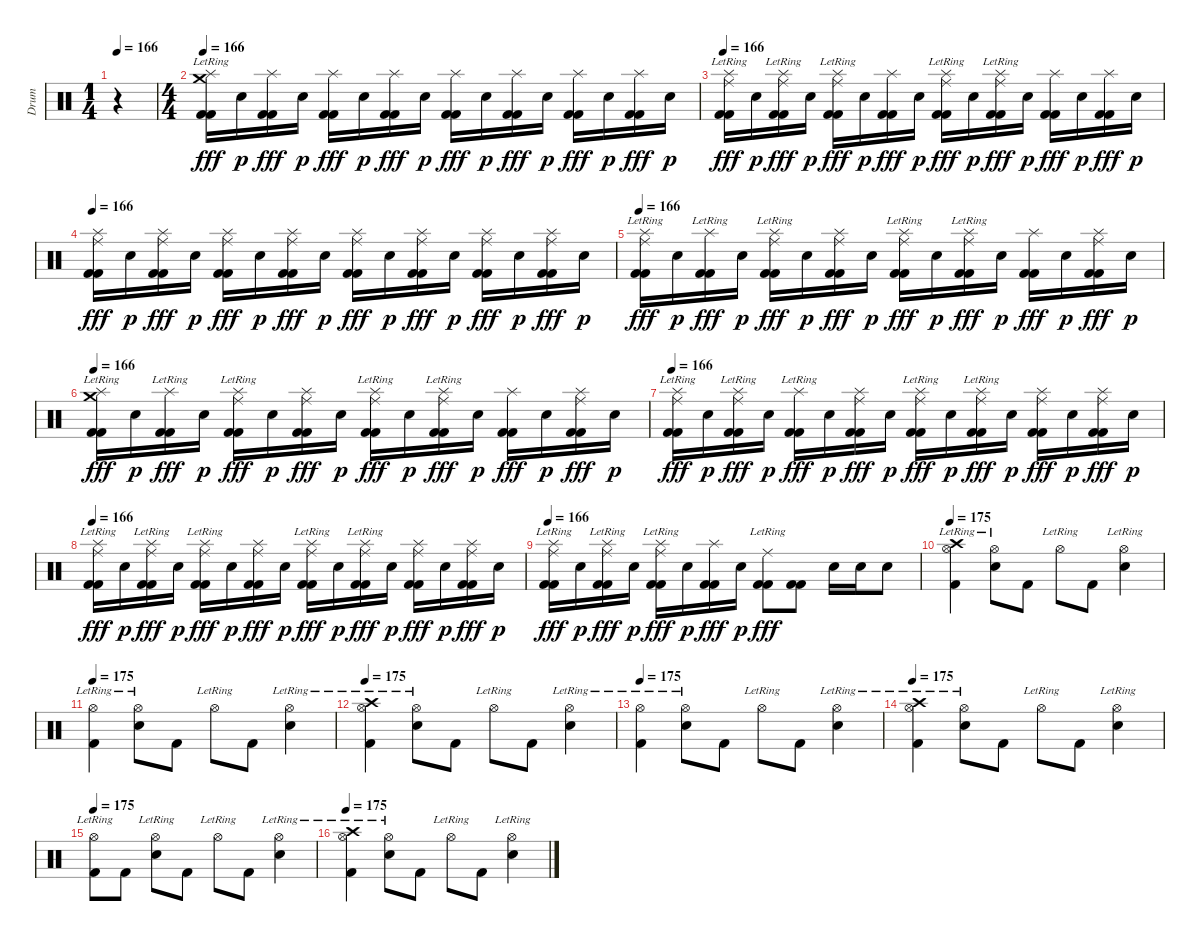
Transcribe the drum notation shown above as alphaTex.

\track ("Drum" "Drum") {instrument percussion}
\staff {score}
\articulation defaults
\ts (1 4)
\tempo 166
\clef neutral
\ks c
r.4{dy fff} |
\ts (4 4)
\tempo 166
("Crash medium (hit)"{lr} "Splash (hit)" "Kick (hit) 2" "Kick (hit) 2").16 "Electric Snare (hit)".16{dy p} ("Splash (hit)" "Kick (hit) 2" "Kick (hit) 2").16{dy fff} "Electric Snare (hit)".16{dy p} ("Splash (hit)" "Kick (hit) 2" "Kick (hit) 2").16{dy fff} "Electric Snare (hit)".16{dy p} ("Splash (hit)" "Kick (hit) 2" "Kick (hit) 2").16{dy fff} "Electric Snare (hit)".16{dy p} ("Splash (hit)" "Kick (hit) 2" "Kick (hit) 2").16{dy fff} "Electric Snare (hit)".16{dy p} ("Splash (hit)" "Kick (hit) 2" "Kick (hit) 2").16{dy fff} "Electric Snare (hit)".16{dy p} ("Splash (hit)" "Kick (hit) 2" "Kick (hit) 2").16{dy fff} "Electric Snare (hit)".16{dy p} ("Splash (hit)" "Kick (hit) 2" "Kick (hit) 2").16{dy fff} "Electric Snare (hit)".16{dy p} |
\tempo 166
("Ride (middle)" "Splash (hit)"{lr} "Kick (hit) 2" "Kick (hit) 2").16{dy fff} "Electric Snare (hit)".16{dy p} ("Ride (middle)" "Splash (hit)"{lr} "Kick (hit) 2" "Kick (hit) 2").16{dy fff} "Electric Snare (hit)".16{dy p} ("Ride (middle)" "Splash (hit)"{lr} "Kick (hit) 2" "Kick (hit) 2").16{dy fff} "Electric Snare (hit)".16{dy p} ("Splash (hit)" "Kick (hit) 2" "Kick (hit) 2").16{dy fff} "Electric Snare (hit)".16{dy p} ("Ride (middle)" "Splash (hit)"{lr} "Kick (hit) 2" "Kick (hit) 2").16{dy fff} "Electric Snare (hit)".16{dy p} ("Ride (middle)" "Splash (hit)"{lr} "Kick (hit) 2" "Kick (hit) 2").16{dy fff} "Electric Snare (hit)".16{dy p} ("Splash (hit)" "Kick (hit) 2" "Kick (hit) 2").16{dy fff} "Electric Snare (hit)".16{dy p} ("Splash (hit)" "Kick (hit) 2" "Kick (hit) 2").16{dy fff} "Electric Snare (hit)".16{dy p} |
\tempo 166
("Ride (middle)" "Splash (hit)" "Kick (hit) 2" "Kick (hit) 2").16{dy fff} "Electric Snare (hit)".16{dy p} ("Ride (middle)" "Splash (hit)" "Kick (hit) 2" "Kick (hit) 2").16{dy fff} "Electric Snare (hit)".16{dy p} ("Ride (middle)" "Splash (hit)" "Kick (hit) 2" "Kick (hit) 2").16{dy fff} "Electric Snare (hit)".16{dy p} ("Ride (middle)" "Splash (hit)" "Kick (hit) 2" "Kick (hit) 2").16{dy fff} "Electric Snare (hit)".16{dy p} ("Ride (middle)" "Splash (hit)" "Kick (hit) 2" "Kick (hit) 2").16{dy fff} "Electric Snare (hit)".16{dy p} ("Ride (middle)" "Splash (hit)" "Kick (hit) 2" "Kick (hit) 2").16{dy fff} "Electric Snare (hit)".16{dy p} ("Ride (middle)" "Splash (hit)" "Kick (hit) 2" "Kick (hit) 2").16{dy fff} "Electric Snare (hit)".16{dy p} ("Ride (middle)" "Splash (hit)" "Kick (hit) 2" "Kick (hit) 2").16{dy fff} "Electric Snare (hit)".16{dy p} |
\tempo 166
("Ride (middle)" "Splash (hit)"{lr} "Kick (hit) 2" "Kick (hit) 2").16{dy fff} "Electric Snare (hit)".16{dy p} ("Splash (hit)"{lr} "Kick (hit) 2" "Kick (hit) 2").16{dy fff} "Electric Snare (hit)".16{dy p} ("Ride (middle)" "Splash (hit)"{lr} "Kick (hit) 2" "Kick (hit) 2").16{dy fff} "Electric Snare (hit)".16{dy p} ("Ride (middle)" "Splash (hit)" "Kick (hit) 2" "Kick (hit) 2").16{dy fff} "Electric Snare (hit)".16{dy p} ("Ride (middle)" "Splash (hit)"{lr} "Kick (hit) 2" "Kick (hit) 2").16{dy fff} "Electric Snare (hit)".16{dy p} ("Ride (middle)" "Splash (hit)"{lr} "Kick (hit) 2" "Kick (hit) 2").16{dy fff} "Electric Snare (hit)".16{dy p} ("Splash (hit)" "Kick (hit) 2" "Kick (hit) 2").16{dy fff} "Electric Snare (hit)".16{dy p} ("Ride (middle)" "Splash (hit)" "Kick (hit) 2" "Kick (hit) 2").16{dy fff} "Electric Snare (hit)".16{dy p} |
\tempo 166
("Crash medium (hit)"{lr} "Splash (hit)"{lr} "Kick (hit) 2" "Kick (hit) 2").16{dy fff} "Electric Snare (hit)".16{dy p} ("Splash (hit)"{lr} "Kick (hit) 2" "Kick (hit) 2").16{dy fff} "Electric Snare (hit)".16{dy p} ("Ride (middle)" "Splash (hit)"{lr} "Kick (hit) 2" "Kick (hit) 2").16{dy fff} "Electric Snare (hit)".16{dy p} ("Ride (middle)" "Splash (hit)" "Kick (hit) 2" "Kick (hit) 2").16{dy fff} "Electric Snare (hit)".16{dy p} ("Ride (middle)" "Splash (hit)"{lr} "Kick (hit) 2" "Kick (hit) 2").16{dy fff} "Electric Snare (hit)".16{dy p} ("Ride (middle)" "Splash (hit)"{lr} "Kick (hit) 2" "Kick (hit) 2").16{dy fff} "Electric Snare (hit)".16{dy p} ("Splash (hit)" "Kick (hit) 2" "Kick (hit) 2").16{dy fff} "Electric Snare (hit)".16{dy p} ("Ride (middle)" "Splash (hit)" "Kick (hit) 2" "Kick (hit) 2").16{dy fff} "Electric Snare (hit)".16{dy p} |
\tempo 166
("Ride (middle)" "Splash (hit)"{lr} "Kick (hit) 2" "Kick (hit) 2").16{dy fff} "Electric Snare (hit)".16{dy p} ("Ride (middle)" "Splash (hit)"{lr} "Kick (hit) 2" "Kick (hit) 2").16{dy fff} "Electric Snare (hit)".16{dy p} ("Splash (hit)"{lr} "Kick (hit) 2" "Kick (hit) 2").16{dy fff} "Electric Snare (hit)".16{dy p} ("Ride (middle)" "Splash (hit)" "Kick (hit) 2" "Kick (hit) 2").16{dy fff} "Electric Snare (hit)".16{dy p} ("Ride (middle)" "Splash (hit)"{lr} "Kick (hit) 2" "Kick (hit) 2").16{dy fff} "Electric Snare (hit)".16{dy p} ("Ride (middle)" "Splash (hit)"{lr} "Kick (hit) 2" "Kick (hit) 2").16{dy fff} "Electric Snare (hit)".16{dy p} ("Ride (middle)" "Splash (hit)" "Kick (hit) 2" "Kick (hit) 2").16{dy fff} "Electric Snare (hit)".16{dy p} ("Ride (middle)" "Splash (hit)" "Kick (hit) 2" "Kick (hit) 2").16{dy fff} "Electric Snare (hit)".16{dy p} |
\tempo 166
("Ride (middle)" "Splash (hit)"{lr} "Kick (hit) 2" "Kick (hit) 2").16{dy fff} "Electric Snare (hit)".16{dy p} ("Ride (middle)" "Splash (hit)"{lr} "Kick (hit) 2" "Kick (hit) 2").16{dy fff} "Electric Snare (hit)".16{dy p} ("Ride (middle)" "Splash (hit)"{lr} "Kick (hit) 2" "Kick (hit) 2").16{dy fff} "Electric Snare (hit)".16{dy p} ("Ride (middle)" "Splash (hit)" "Kick (hit) 2" "Kick (hit) 2").16{dy fff} "Electric Snare (hit)".16{dy p} ("Ride (middle)" "Splash (hit)"{lr} "Kick (hit) 2" "Kick (hit) 2").16{dy fff} "Electric Snare (hit)".16{dy p} ("Ride (middle)" "Splash (hit)"{lr} "Kick (hit) 2" "Kick (hit) 2").16{dy fff} "Electric Snare (hit)".16{dy p} ("Ride (middle)" "Splash (hit)" "Kick (hit) 2" "Kick (hit) 2").16{dy fff} "Electric Snare (hit)".16{dy p} ("Ride (middle)" "Splash (hit)" "Kick (hit) 2" "Kick (hit) 2").16{dy fff} "Electric Snare (hit)".16{dy p} |
\tempo 166
("Ride (middle)" "Splash (hit)"{lr} "Kick (hit) 2" "Kick (hit) 2").16{dy fff} "Electric Snare (hit)".16{dy p} ("Ride (middle)" "Splash (hit)"{lr} "Kick (hit) 2" "Kick (hit) 2").16{dy fff} "Electric Snare (hit)".16{dy p} ("Ride (middle)" "Splash (hit)"{lr} "Kick (hit) 2" "Kick (hit) 2").16{dy fff} "Electric Snare (hit)".16{dy p} ("Splash (hit)" "Kick (hit) 2" "Kick (hit) 2").16{dy fff} "Electric Snare (hit)".16{dy p} ("Ride (middle)"{lr} "Kick (hit) 2" "Kick (hit) 2").8{dy fff} ("Kick (hit) 2" "Kick (hit) 2").8 "Electric Snare (hit)".16 "Electric Snare (hit)".16 "Electric Snare (hit)".8 |
\tempo 175
("Crash high (hit)"{lr} "Hi-Hat (open)"{lr} "Kick (hit) 2").4 ("Hi-Hat (open)"{lr} "Electric Snare (hit)").8 "Kick (hit) 2".8 "Hi-Hat (open)"{lr}.8 "Kick (hit) 2".8 ("Hi-Hat (open)"{lr} "Electric Snare (hit)").4 |
\tempo 175
("Hi-Hat (open)"{lr} "Kick (hit) 2").4 ("Hi-Hat (open)"{lr} "Electric Snare (hit)").8 "Kick (hit) 2".8 "Hi-Hat (open)"{lr}.8 "Kick (hit) 2".8 ("Hi-Hat (open)"{lr} "Electric Snare (hit)").4 |
\tempo 175
("Crash high (hit)"{lr} "Hi-Hat (open)"{lr} "Kick (hit) 2").4 ("Hi-Hat (open)"{lr} "Electric Snare (hit)").8 "Kick (hit) 2".8 "Hi-Hat (open)"{lr}.8 "Kick (hit) 2".8 ("Hi-Hat (open)"{lr} "Electric Snare (hit)").4 |
\tempo 175
("Hi-Hat (open)"{lr} "Kick (hit) 2").4 ("Hi-Hat (open)"{lr} "Electric Snare (hit)").8 "Kick (hit) 2".8 "Hi-Hat (open)"{lr}.8 "Kick (hit) 2".8 ("Hi-Hat (open)"{lr} "Electric Snare (hit)").4 |
\tempo 175
("Crash high (hit)"{lr} "Hi-Hat (open)"{lr} "Kick (hit) 2").4 ("Hi-Hat (open)"{lr} "Electric Snare (hit)").8 "Kick (hit) 2".8 "Hi-Hat (open)"{lr}.8 "Kick (hit) 2".8 ("Hi-Hat (open)"{lr} "Electric Snare (hit)").4 |
\tempo 175
("Hi-Hat (open)"{lr} "Kick (hit) 2").8 "Kick (hit) 2".8 ("Hi-Hat (open)"{lr} "Electric Snare (hit)").8 "Kick (hit) 2".8 "Hi-Hat (open)"{lr}.8 "Kick (hit) 2".8 ("Hi-Hat (open)"{lr} "Electric Snare (hit)").4 |
\tempo 175
("Crash high (hit)"{lr} "Hi-Hat (open)"{lr} "Kick (hit) 2").4 ("Hi-Hat (open)"{lr} "Electric Snare (hit)").8 "Kick (hit) 2".8 "Hi-Hat (open)"{lr}.8 "Kick (hit) 2".8 ("Hi-Hat (open)"{lr} "Electric Snare (hit)").4
